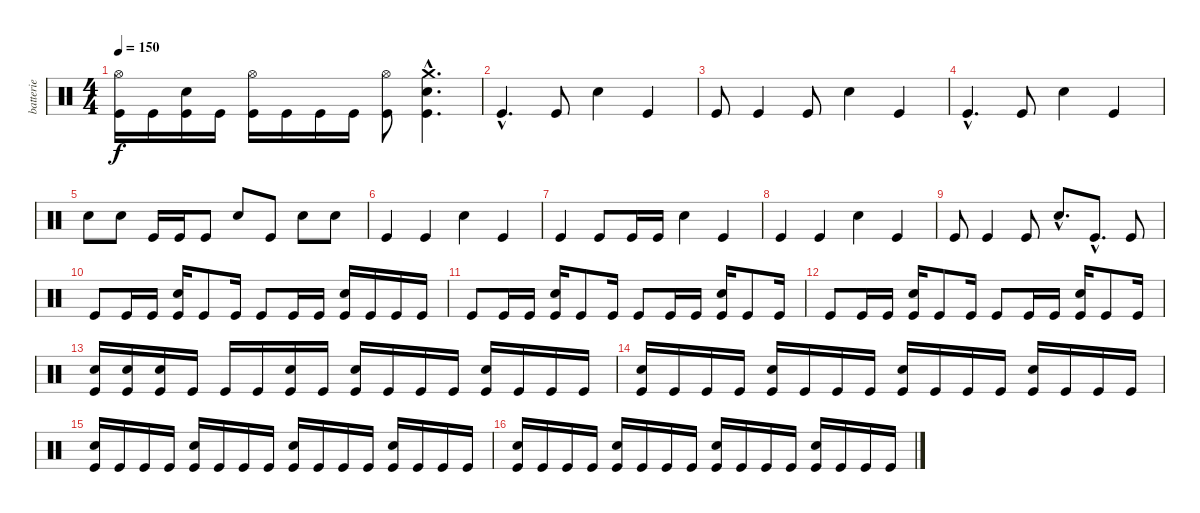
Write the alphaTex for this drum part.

\track ("batterie" "batterie") {instrument percussion}
\staff {score}
\articulation defaults
\ts (4 4)
\tempo 150
\clef neutral
\ks c
("Hi-Hat (open)" "Kick (hit)").16{dy f} "Kick (hit)".16 ("Snare (hit) 2" "Kick (hit)").16 "Kick (hit)".16 ("Hi-Hat (open)" "Kick (hit)").16 "Kick (hit)".16 "Kick (hit)".16 "Kick (hit)".16 ("Hi-Hat (open)" "Kick (hit)").8 ("Crash medium (hit)"{hac} "Snare (hit) 2"{hac} "Kick (hit)"{hac}).4{d} |
"Kick (hit)"{hac}.4{d} "Kick (hit)".8 "Snare (hit) 2".4 "Kick (hit)".4 |
"Kick (hit)".8 "Kick (hit)".4 "Kick (hit)".8 "Snare (hit) 2".4 "Kick (hit)".4 |
"Kick (hit)"{hac}.4{d} "Kick (hit)".8 "Snare (hit) 2".4 "Kick (hit)".4 |
"Snare (hit) 2".8 "Snare (hit) 2".8 "Kick (hit)".16 "Kick (hit)".16 "Kick (hit)".8 "Snare (hit) 2".8 "Kick (hit)".8 "Snare (hit) 2".8 "Snare (hit) 2".8 |
"Kick (hit)".4 "Kick (hit)".4 "Snare (hit) 2".4 "Kick (hit)".4 |
"Kick (hit)".4 "Kick (hit)".8 "Kick (hit)".16 "Kick (hit)".16 "Snare (hit) 2".4 "Kick (hit)".4 |
"Kick (hit)".4 "Kick (hit)".4 "Snare (hit) 2".4 "Kick (hit)".4 |
"Kick (hit)".8 "Kick (hit)".4 "Kick (hit)".8 "Snare (hit) 2"{hac}.8{d} "Kick (hit)"{hac}.8{d} "Kick (hit)".8 |
"Kick (hit)".8 "Kick (hit)".16 "Kick (hit)".16 ("Snare (hit) 2" "Kick (hit)").16 "Kick (hit)".8 "Kick (hit)".16 "Kick (hit)".8 "Kick (hit)".16 "Kick (hit)".16 ("Snare (hit) 2" "Kick (hit)").16 "Kick (hit)".16 "Kick (hit)".16 "Kick (hit)".16 |
"Kick (hit)".8 "Kick (hit)".16 "Kick (hit)".16 ("Snare (hit) 2" "Kick (hit)").16 "Kick (hit)".8 "Kick (hit)".16 "Kick (hit)".8 "Kick (hit)".16 "Kick (hit)".16 ("Snare (hit) 2" "Kick (hit)").16 "Kick (hit)".8 "Kick (hit)".16 |
"Kick (hit)".8 "Kick (hit)".16 "Kick (hit)".16 ("Snare (hit) 2" "Kick (hit)").16 "Kick (hit)".8 "Kick (hit)".16 "Kick (hit)".8 "Kick (hit)".16 "Kick (hit)".16 ("Snare (hit) 2" "Kick (hit)").16 "Kick (hit)".8 "Kick (hit)".16 |
("Snare (hit) 2" "Kick (hit)").16 ("Snare (hit) 2" "Kick (hit)").16 ("Snare (hit) 2" "Kick (hit)").16 "Kick (hit)".16 "Kick (hit)".16 "Kick (hit)".16 ("Snare (hit) 2" "Kick (hit)").16 "Kick (hit)".16 ("Snare (hit) 2" "Kick (hit)").16 "Kick (hit)".16 "Kick (hit)".16 "Kick (hit)".16 ("Snare (hit) 2" "Kick (hit)").16 "Kick (hit)".16 "Kick (hit)".16 "Kick (hit)".16 |
("Snare (hit) 2" "Kick (hit)").16 "Kick (hit)".16 "Kick (hit)".16 "Kick (hit)".16 ("Snare (hit) 2" "Kick (hit)").16 "Kick (hit)".16 "Kick (hit)".16 "Kick (hit)".16 ("Snare (hit) 2" "Kick (hit)").16 "Kick (hit)".16 "Kick (hit)".16 "Kick (hit)".16 ("Snare (hit) 2" "Kick (hit)").16 "Kick (hit)".16 "Kick (hit)".16 "Kick (hit)".16 |
("Snare (hit) 2" "Kick (hit)").16 "Kick (hit)".16 "Kick (hit)".16 "Kick (hit)".16 ("Snare (hit) 2" "Kick (hit)").16 "Kick (hit)".16 "Kick (hit)".16 "Kick (hit)".16 ("Snare (hit) 2" "Kick (hit)").16 "Kick (hit)".16 "Kick (hit)".16 "Kick (hit)".16 ("Snare (hit) 2" "Kick (hit)").16 "Kick (hit)".16 "Kick (hit)".16 "Kick (hit)".16 |
("Snare (hit) 2" "Kick (hit)").16 "Kick (hit)".16 "Kick (hit)".16 "Kick (hit)".16 ("Snare (hit) 2" "Kick (hit)").16 "Kick (hit)".16 "Kick (hit)".16 "Kick (hit)".16 ("Snare (hit) 2" "Kick (hit)").16 "Kick (hit)".16 "Kick (hit)".16 "Kick (hit)".16 ("Snare (hit) 2" "Kick (hit)").16 "Kick (hit)".16 "Kick (hit)".16 "Kick (hit)".16
